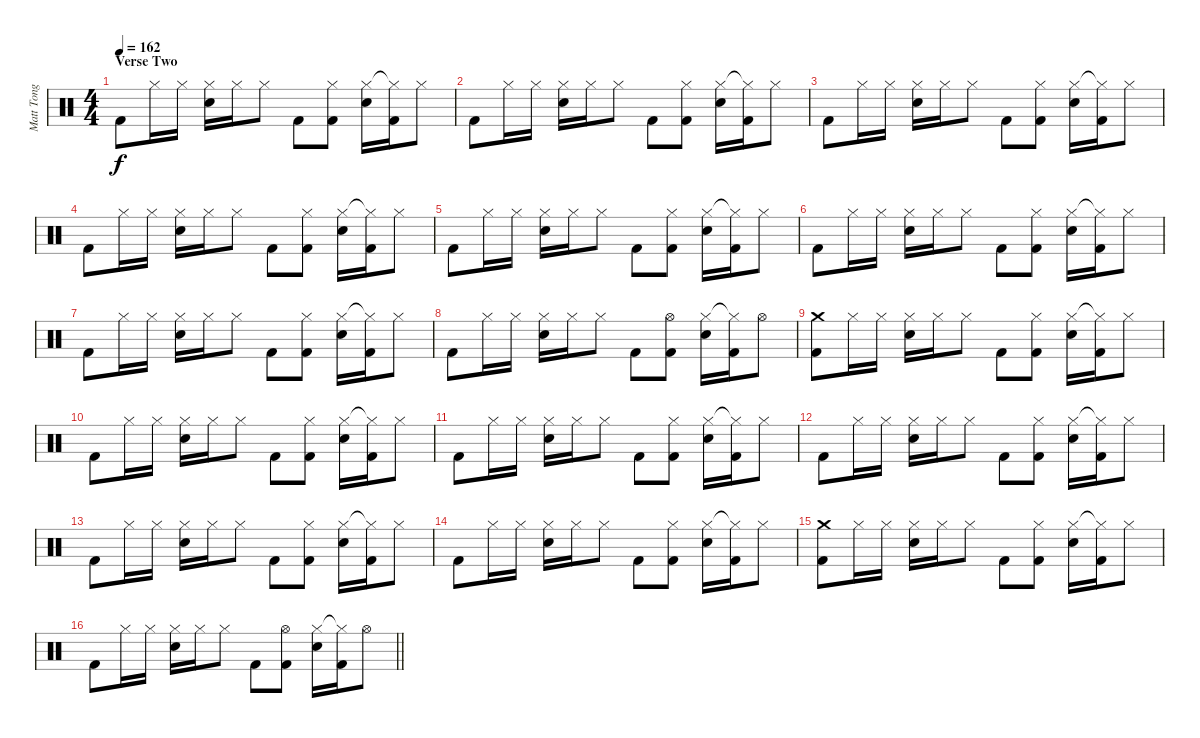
\track ("Matt Tong" "Matt Tong") {instrument percussion}
\staff {score}
\articulation defaults
\ts (4 4)
\section ("" "Verse Two")
\tempo 162
\clef neutral
\ks c "Kick (hit) 2".8{dy f} "Hi-Hat (closed)".16 "Hi-Hat (closed)".16
("Hi-Hat (closed)" "Snare (hit) 2").16 "Hi-Hat (closed)".16 "Hi-Hat (closed)".8 "Kick (hit) 2".8 ("Hi-Hat (closed)" "Kick (hit) 2").8 ("Hi-Hat (closed)" "Snare (hit) 2").16 ("Hi-Hat (closed)"{t} "Kick (hit) 2").16 "Hi-Hat (closed)".8 |
"Kick (hit) 2".8 "Hi-Hat (closed)".16 "Hi-Hat (closed)".16 ("Hi-Hat (closed)" "Snare (hit) 2").16 "Hi-Hat (closed)".16 "Hi-Hat (closed)".8 "Kick (hit) 2".8 ("Hi-Hat (closed)" "Kick (hit) 2").8 ("Hi-Hat (closed)" "Snare (hit) 2").16 ("Hi-Hat (closed)"{t} "Kick (hit) 2").16 "Hi-Hat (closed)".8 |
"Kick (hit) 2".8 "Hi-Hat (closed)".16 "Hi-Hat (closed)".16 ("Hi-Hat (closed)" "Snare (hit) 2").16 "Hi-Hat (closed)".16 "Hi-Hat (closed)".8 "Kick (hit) 2".8 ("Hi-Hat (closed)" "Kick (hit) 2").8 ("Hi-Hat (closed)" "Snare (hit) 2").16 ("Hi-Hat (closed)"{t} "Kick (hit) 2").16 "Hi-Hat (closed)".8 |
"Kick (hit) 2".8 "Hi-Hat (closed)".16 "Hi-Hat (closed)".16 ("Hi-Hat (closed)" "Snare (hit) 2").16 "Hi-Hat (closed)".16 "Hi-Hat (closed)".8 "Kick (hit) 2".8 ("Hi-Hat (closed)" "Kick (hit) 2").8 ("Hi-Hat (closed)" "Snare (hit) 2").16 ("Hi-Hat (closed)"{t} "Kick (hit) 2").16 "Hi-Hat (closed)".8 |
"Kick (hit) 2".8 "Hi-Hat (closed)".16 "Hi-Hat (closed)".16 ("Hi-Hat (closed)" "Snare (hit) 2").16 "Hi-Hat (closed)".16 "Hi-Hat (closed)".8 "Kick (hit) 2".8 ("Hi-Hat (closed)" "Kick (hit) 2").8 ("Hi-Hat (closed)" "Snare (hit) 2").16 ("Hi-Hat (closed)"{t} "Kick (hit) 2").16 "Hi-Hat (closed)".8 |
"Kick (hit) 2".8 "Hi-Hat (closed)".16 "Hi-Hat (closed)".16 ("Hi-Hat (closed)" "Snare (hit) 2").16 "Hi-Hat (closed)".16 "Hi-Hat (closed)".8 "Kick (hit) 2".8 ("Hi-Hat (closed)" "Kick (hit) 2").8 ("Hi-Hat (closed)" "Snare (hit) 2").16 ("Hi-Hat (closed)"{t} "Kick (hit) 2").16 "Hi-Hat (closed)".8 |
"Kick (hit) 2".8 "Hi-Hat (closed)".16 "Hi-Hat (closed)".16 ("Hi-Hat (closed)" "Snare (hit) 2").16 "Hi-Hat (closed)".16 "Hi-Hat (closed)".8 "Kick (hit) 2".8 ("Hi-Hat (closed)" "Kick (hit) 2").8 ("Hi-Hat (closed)" "Snare (hit) 2").16 ("Hi-Hat (closed)"{t} "Kick (hit) 2").16 "Hi-Hat (closed)".8 |
"Kick (hit) 2".8 "Hi-Hat (closed)".16 "Hi-Hat (closed)".16 ("Hi-Hat (closed)" "Snare (hit) 2").16 "Hi-Hat (closed)".16 "Hi-Hat (closed)".8 "Kick (hit) 2".8 ("Hi-Hat (open)" "Kick (hit) 2").8 ("Hi-Hat (closed)" "Snare (hit) 2").16 ("Hi-Hat (closed)"{t} "Kick (hit) 2").16 "Hi-Hat (open)".8 |
("Crash medium (hit)" "Kick (hit) 2").8 "Hi-Hat (closed)".16 "Hi-Hat (closed)".16 ("Hi-Hat (closed)" "Snare (hit) 2").16 "Hi-Hat (closed)".16 "Hi-Hat (closed)".8 "Kick (hit) 2".8 ("Hi-Hat (closed)" "Kick (hit) 2").8 ("Hi-Hat (closed)" "Snare (hit) 2").16 ("Hi-Hat (closed)"{t} "Kick (hit) 2").16 "Hi-Hat (closed)".8 |
"Kick (hit) 2".8 "Hi-Hat (closed)".16 "Hi-Hat (closed)".16 ("Hi-Hat (closed)" "Snare (hit) 2").16 "Hi-Hat (closed)".16 "Hi-Hat (closed)".8 "Kick (hit) 2".8 ("Hi-Hat (closed)" "Kick (hit) 2").8 ("Hi-Hat (closed)" "Snare (hit) 2").16 ("Hi-Hat (closed)"{t} "Kick (hit) 2").16 "Hi-Hat (closed)".8 |
"Kick (hit) 2".8 "Hi-Hat (closed)".16 "Hi-Hat (closed)".16 ("Hi-Hat (closed)" "Snare (hit) 2").16 "Hi-Hat (closed)".16 "Hi-Hat (closed)".8 "Kick (hit) 2".8 ("Hi-Hat (closed)" "Kick (hit) 2").8 ("Hi-Hat (closed)" "Snare (hit) 2").16 ("Hi-Hat (closed)"{t} "Kick (hit) 2").16 "Hi-Hat (closed)".8 |
"Kick (hit) 2".8 "Hi-Hat (closed)".16 "Hi-Hat (closed)".16 ("Hi-Hat (closed)" "Snare (hit) 2").16 "Hi-Hat (closed)".16 "Hi-Hat (closed)".8 "Kick (hit) 2".8 ("Hi-Hat (closed)" "Kick (hit) 2").8 ("Hi-Hat (closed)" "Snare (hit) 2").16 ("Hi-Hat (closed)"{t} "Kick (hit) 2").16 "Hi-Hat (closed)".8 |
"Kick (hit) 2".8 "Hi-Hat (closed)".16 "Hi-Hat (closed)".16 ("Hi-Hat (closed)" "Snare (hit) 2").16 "Hi-Hat (closed)".16 "Hi-Hat (closed)".8 "Kick (hit) 2".8 ("Hi-Hat (closed)" "Kick (hit) 2").8 ("Hi-Hat (closed)" "Snare (hit) 2").16 ("Hi-Hat (closed)"{t} "Kick (hit) 2").16 "Hi-Hat (closed)".8 |
"Kick (hit) 2".8 "Hi-Hat (closed)".16 "Hi-Hat (closed)".16 ("Hi-Hat (closed)" "Snare (hit) 2").16 "Hi-Hat (closed)".16 "Hi-Hat (closed)".8 "Kick (hit) 2".8 ("Hi-Hat (closed)" "Kick (hit) 2").8 ("Hi-Hat (closed)" "Snare (hit) 2").16 ("Hi-Hat (closed)"{t} "Kick (hit) 2").16 "Hi-Hat (closed)".8 |
("Crash medium (hit)" "Kick (hit) 2").8 "Hi-Hat (closed)".16 "Hi-Hat (closed)".16 ("Hi-Hat (closed)" "Snare (hit) 2").16 "Hi-Hat (closed)".16 "Hi-Hat (closed)".8 "Kick (hit) 2".8 ("Hi-Hat (closed)" "Kick (hit) 2").8 ("Hi-Hat (closed)" "Snare (hit) 2").16 ("Hi-Hat (closed)"{t} "Kick (hit) 2").16 "Hi-Hat (closed)".8 |
\barLineRight lightlight "Kick (hit) 2".8 "Hi-Hat (closed)".16 "Hi-Hat (closed)".16
("Hi-Hat (closed)" "Snare (hit) 2").16 "Hi-Hat (closed)".16 "Hi-Hat (closed)".8 "Kick (hit) 2".8 ("Hi-Hat (open)" "Kick (hit) 2").8 ("Hi-Hat (closed)" "Snare (hit) 2").16 ("Hi-Hat (closed)"{t} "Kick (hit) 2").16 "Hi-Hat (open)".8
